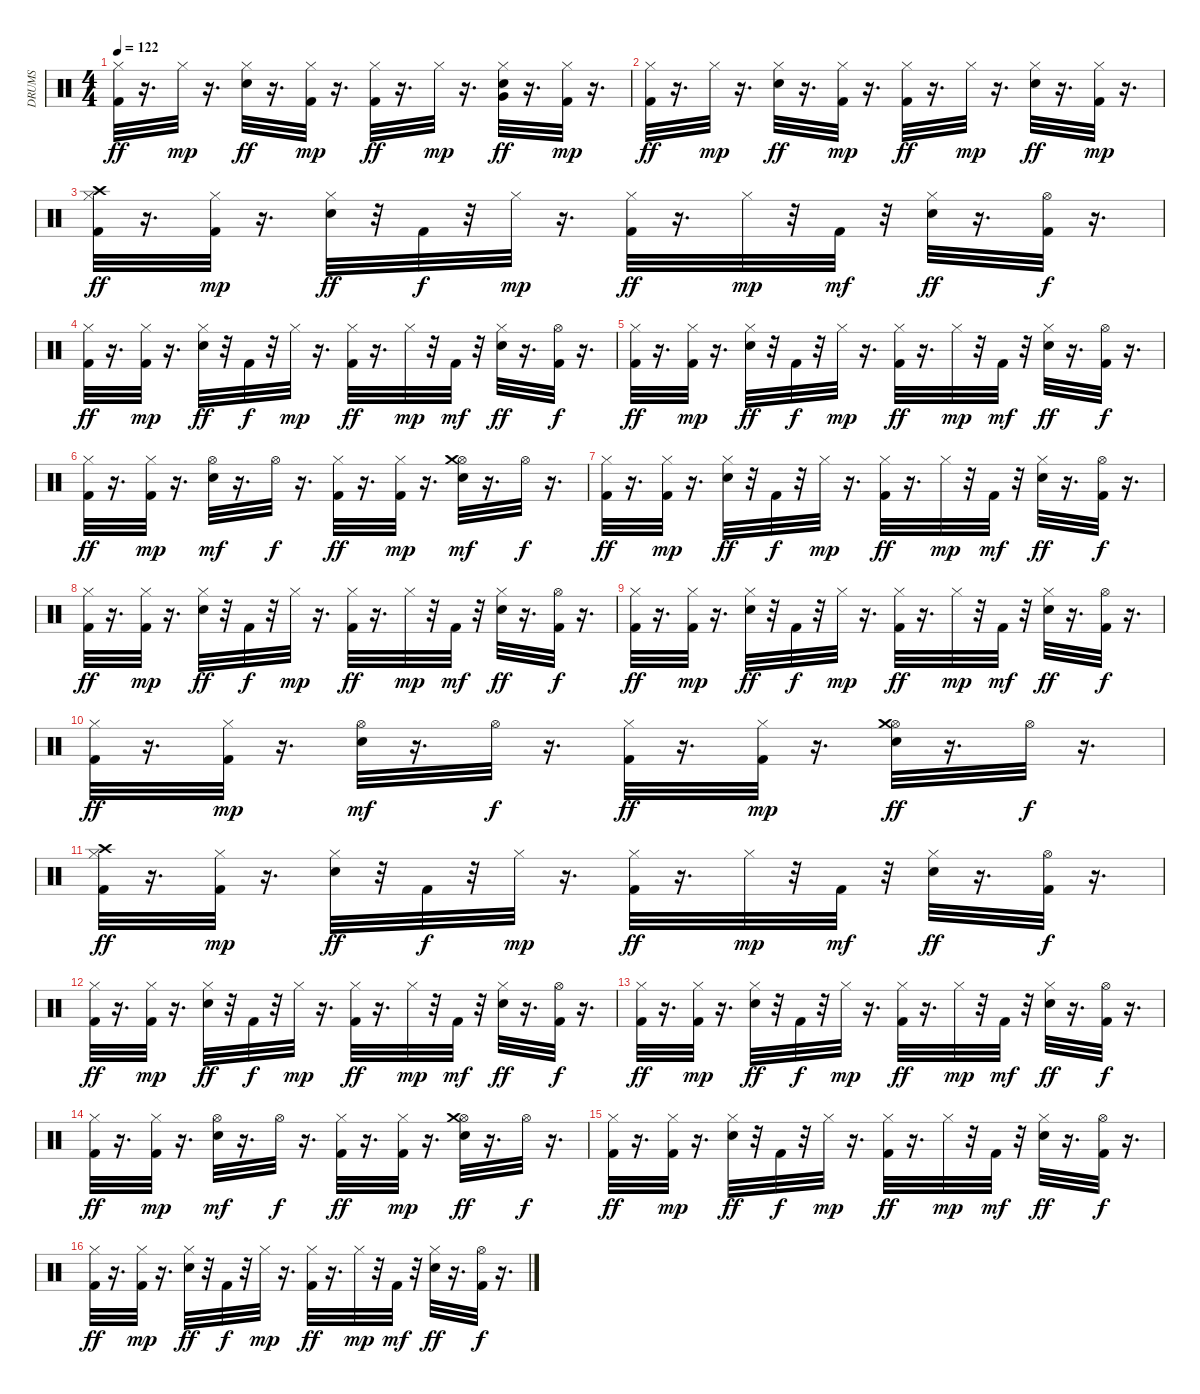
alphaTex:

\track ("DRUMS" "DRUMS") {instrument percussion}
\staff {score}
\articulation defaults
\ts (4 4)
\tempo 122
\clef neutral
\ks c
("Hi-Hat (closed)" "Kick (hit) 2").32{dy ff} r.16{d} "Hi-Hat (closed)".32{dy mp} r.16{d} ("Hi-Hat (closed)" "Snare (hit) 2").32{dy ff} r.16{d} ("Kick (hit) 2" "Hi-Hat (closed)").32{dy mp} r.16{d} ("Kick (hit) 2" "Hi-Hat (closed)").32{dy ff} r.16{d} "Hi-Hat (closed)".32{dy mp} r.16{d} ("Hi-Hat (closed)" "Very Low Tom (hit)" "Snare (hit) 2").32{dy ff} r.16{d} ("Kick (hit) 2" "Hi-Hat (closed)").32{dy mp} r.16{d} |
("Kick (hit) 2" "Hi-Hat (closed)").32{dy ff} r.16{d} "Hi-Hat (closed)".32{dy mp} r.16{d} ("Snare (hit) 2" "Hi-Hat (closed)").32{dy ff} r.16{d} ("Kick (hit) 2" "Hi-Hat (closed)").32{dy mp} r.16{d} ("Kick (hit) 2" "Hi-Hat (closed)").32{dy ff} r.16{d} "Hi-Hat (closed)".32{dy mp} r.16{d} ("Hi-Hat (closed)" "Snare (hit) 2").32{dy ff} r.16{d} ("Hi-Hat (closed)" "Kick (hit) 2").32{dy mp} r.16{d} |
("Kick (hit) 2" "Crash high (hit)" "Hi-Hat (closed)").32{dy ff} r.16{d} ("Hi-Hat (closed)" "Kick (hit) 2").32{dy mp} r.16{d} ("Snare (hit) 2" "Hi-Hat (closed)").32{dy ff} r.32 "Kick (hit) 2".32{dy f} r.32 "Hi-Hat (closed)".32{dy mp} r.16{d} ("Hi-Hat (closed)" "Kick (hit) 2").32{dy ff} r.16{d} "Hi-Hat (closed)".32{dy mp} r.32 "Kick (hit) 2".32{dy mf} r.32 ("Hi-Hat (closed)" "Snare (hit) 2").32{dy ff} r.16{d} ("Hi-Hat (open)" "Kick (hit) 2").32{dy f} r.16{d} |
("Kick (hit) 2" "Hi-Hat (closed)").32{dy ff} r.16{d} ("Kick (hit) 2" "Hi-Hat (closed)").32{dy mp} r.16{d} ("Hi-Hat (closed)" "Snare (hit) 2").32{dy ff} r.32 "Kick (hit) 2".32{dy f} r.32 "Hi-Hat (closed)".32{dy mp} r.16{d} ("Kick (hit) 2" "Hi-Hat (closed)").32{dy ff} r.16{d} "Hi-Hat (closed)".32{dy mp} r.32 "Kick (hit) 2".32{dy mf} r.32 ("Snare (hit) 2" "Hi-Hat (closed)").32{dy ff} r.16{d} ("Kick (hit) 2" "Hi-Hat (open)").32{dy f} r.16{d} |
("Kick (hit) 2" "Hi-Hat (closed)").32{dy ff} r.16{d} ("Kick (hit) 2" "Hi-Hat (closed)").32{dy mp} r.16{d} ("Snare (hit) 2" "Hi-Hat (closed)").32{dy ff} r.32 "Kick (hit) 2".32{dy f} r.32 "Hi-Hat (closed)".32{dy mp} r.16{d} ("Hi-Hat (closed)" "Kick (hit) 2").32{dy ff} r.16{d} "Hi-Hat (closed)".32{dy mp} r.32 "Kick (hit) 2".32{dy mf} r.32 ("Hi-Hat (closed)" "Snare (hit) 2").32{dy ff} r.16{d} ("Hi-Hat (open)" "Kick (hit) 2").32{dy f} r.16{d} |
("Hi-Hat (closed)" "Kick (hit) 2").32{dy ff} r.16{d} ("Kick (hit) 2" "Hi-Hat (closed)").32{dy mp} r.16{d} ("Snare (hit) 2" "Hi-Hat (open)").32{dy mf} r.16{d} "Hi-Hat (open)".32{dy f} r.16{d} ("Kick (hit) 2" "Hi-Hat (closed)").32{dy ff} r.16{d} ("Kick (hit) 2" "Hi-Hat (closed)").32{dy mp} r.16{d} ("Snare (hit) 2" "Hi-Hat (open)" "Crash medium (hit)").32{dy mf} r.16{d} "Hi-Hat (open)".32{dy f} r.16{d} |
("Hi-Hat (closed)" "Kick (hit) 2").32{dy ff} r.16{d} ("Hi-Hat (closed)" "Kick (hit) 2").32{dy mp} r.16{d} ("Snare (hit) 2" "Hi-Hat (closed)").32{dy ff} r.32 "Kick (hit) 2".32{dy f} r.32 "Hi-Hat (closed)".32{dy mp} r.16{d} ("Hi-Hat (closed)" "Kick (hit) 2").32{dy ff} r.16{d} "Hi-Hat (closed)".32{dy mp} r.32 "Kick (hit) 2".32{dy mf} r.32 ("Snare (hit) 2" "Hi-Hat (closed)").32{dy ff} r.16{d} ("Hi-Hat (open)" "Kick (hit) 2").32{dy f} r.16{d} |
("Hi-Hat (closed)" "Kick (hit) 2").32{dy ff} r.16{d} ("Hi-Hat (closed)" "Kick (hit) 2").32{dy mp} r.16{d} ("Hi-Hat (closed)" "Snare (hit) 2").32{dy ff} r.32 "Kick (hit) 2".32{dy f} r.32 "Hi-Hat (closed)".32{dy mp} r.16{d} ("Kick (hit) 2" "Hi-Hat (closed)").32{dy ff} r.16{d} "Hi-Hat (closed)".32{dy mp} r.32 "Kick (hit) 2".32{dy mf} r.32 ("Snare (hit) 2" "Hi-Hat (closed)").32{dy ff} r.16{d} ("Hi-Hat (open)" "Kick (hit) 2").32{dy f} r.16{d} |
("Kick (hit) 2" "Hi-Hat (closed)").32{dy ff} r.16{d} ("Kick (hit) 2" "Hi-Hat (closed)").32{dy mp} r.16{d} ("Hi-Hat (closed)" "Snare (hit) 2").32{dy ff} r.32 "Kick (hit) 2".32{dy f} r.32 "Hi-Hat (closed)".32{dy mp} r.16{d} ("Kick (hit) 2" "Hi-Hat (closed)").32{dy ff} r.16{d} "Hi-Hat (closed)".32{dy mp} r.32 "Kick (hit) 2".32{dy mf} r.32 ("Hi-Hat (closed)" "Snare (hit) 2").32{dy ff} r.16{d} ("Kick (hit) 2" "Hi-Hat (open)").32{dy f} r.16{d} |
("Hi-Hat (closed)" "Kick (hit) 2").32{dy ff} r.16{d} ("Kick (hit) 2" "Hi-Hat (closed)").32{dy mp} r.16{d} ("Snare (hit) 2" "Hi-Hat (open)").32{dy mf} r.16{d} "Hi-Hat (open)".32{dy f} r.16{d} ("Hi-Hat (closed)" "Kick (hit) 2").32{dy ff} r.16{d} ("Hi-Hat (closed)" "Kick (hit) 2").32{dy mp} r.16{d} ("Hi-Hat (open)" "Crash medium (hit)" "Snare (hit) 2").32{dy ff} r.16{d} "Hi-Hat (open)".32{dy f} r.16{d} |
("Hi-Hat (closed)" "Kick (hit) 2" "Crash high (hit)").32{dy ff} r.16{d} ("Kick (hit) 2" "Hi-Hat (closed)").32{dy mp} r.16{d} ("Snare (hit) 2" "Hi-Hat (closed)").32{dy ff} r.32 "Kick (hit) 2".32{dy f} r.32 "Hi-Hat (closed)".32{dy mp} r.16{d} ("Kick (hit) 2" "Hi-Hat (closed)").32{dy ff} r.16{d} "Hi-Hat (closed)".32{dy mp} r.32 "Kick (hit) 2".32{dy mf} r.32 ("Snare (hit) 2" "Hi-Hat (closed)").32{dy ff} r.16{d} ("Hi-Hat (open)" "Kick (hit) 2").32{dy f} r.16{d} |
("Hi-Hat (closed)" "Kick (hit) 2").32{dy ff} r.16{d} ("Kick (hit) 2" "Hi-Hat (closed)").32{dy mp} r.16{d} ("Snare (hit) 2" "Hi-Hat (closed)").32{dy ff} r.32 "Kick (hit) 2".32{dy f} r.32 "Hi-Hat (closed)".32{dy mp} r.16{d} ("Hi-Hat (closed)" "Kick (hit) 2").32{dy ff} r.16{d} "Hi-Hat (closed)".32{dy mp} r.32 "Kick (hit) 2".32{dy mf} r.32 ("Hi-Hat (closed)" "Snare (hit) 2").32{dy ff} r.16{d} ("Hi-Hat (open)" "Kick (hit) 2").32{dy f} r.16{d} |
("Hi-Hat (closed)" "Kick (hit) 2").32{dy ff} r.16{d} ("Hi-Hat (closed)" "Kick (hit) 2").32{dy mp} r.16{d} ("Snare (hit) 2" "Hi-Hat (closed)").32{dy ff} r.32 "Kick (hit) 2".32{dy f} r.32 "Hi-Hat (closed)".32{dy mp} r.16{d} ("Hi-Hat (closed)" "Kick (hit) 2").32{dy ff} r.16{d} "Hi-Hat (closed)".32{dy mp} r.32 "Kick (hit) 2".32{dy mf} r.32 ("Snare (hit) 2" "Hi-Hat (closed)").32{dy ff} r.16{d} ("Hi-Hat (open)" "Kick (hit) 2").32{dy f} r.16{d} |
("Kick (hit) 2" "Hi-Hat (closed)").32{dy ff} r.16{d} ("Hi-Hat (closed)" "Kick (hit) 2").32{dy mp} r.16{d} ("Snare (hit) 2" "Hi-Hat (open)").32{dy mf} r.16{d} "Hi-Hat (open)".32{dy f} r.16{d} ("Kick (hit) 2" "Hi-Hat (closed)").32{dy ff} r.16{d} ("Hi-Hat (closed)" "Kick (hit) 2").32{dy mp} r.16{d} ("Hi-Hat (open)" "Snare (hit) 2" "Crash medium (hit)").32{dy ff} r.16{d} "Hi-Hat (open)".32{dy f} r.16{d} |
("Kick (hit) 2" "Hi-Hat (closed)").32{dy ff} r.16{d} ("Hi-Hat (closed)" "Kick (hit) 2").32{dy mp} r.16{d} ("Hi-Hat (closed)" "Snare (hit) 2").32{dy ff} r.32 "Kick (hit) 2".32{dy f} r.32 "Hi-Hat (closed)".32{dy mp} r.16{d} ("Hi-Hat (closed)" "Kick (hit) 2").32{dy ff} r.16{d} "Hi-Hat (closed)".32{dy mp} r.32 "Kick (hit) 2".32{dy mf} r.32 ("Snare (hit) 2" "Hi-Hat (closed)").32{dy ff} r.16{d} ("Hi-Hat (open)" "Kick (hit) 2").32{dy f} r.16{d} |
("Hi-Hat (closed)" "Kick (hit) 2").32{dy ff} r.16{d} ("Kick (hit) 2" "Hi-Hat (closed)").32{dy mp} r.16{d} ("Hi-Hat (closed)" "Snare (hit) 2").32{dy ff} r.32 "Kick (hit) 2".32{dy f} r.32 "Hi-Hat (closed)".32{dy mp} r.16{d} ("Kick (hit) 2" "Hi-Hat (closed)").32{dy ff} r.16{d} "Hi-Hat (closed)".32{dy mp} r.32 "Kick (hit) 2".32{dy mf} r.32 ("Snare (hit) 2" "Hi-Hat (closed)").32{dy ff} r.16{d} ("Kick (hit) 2" "Hi-Hat (open)").32{dy f} r.16{d}
